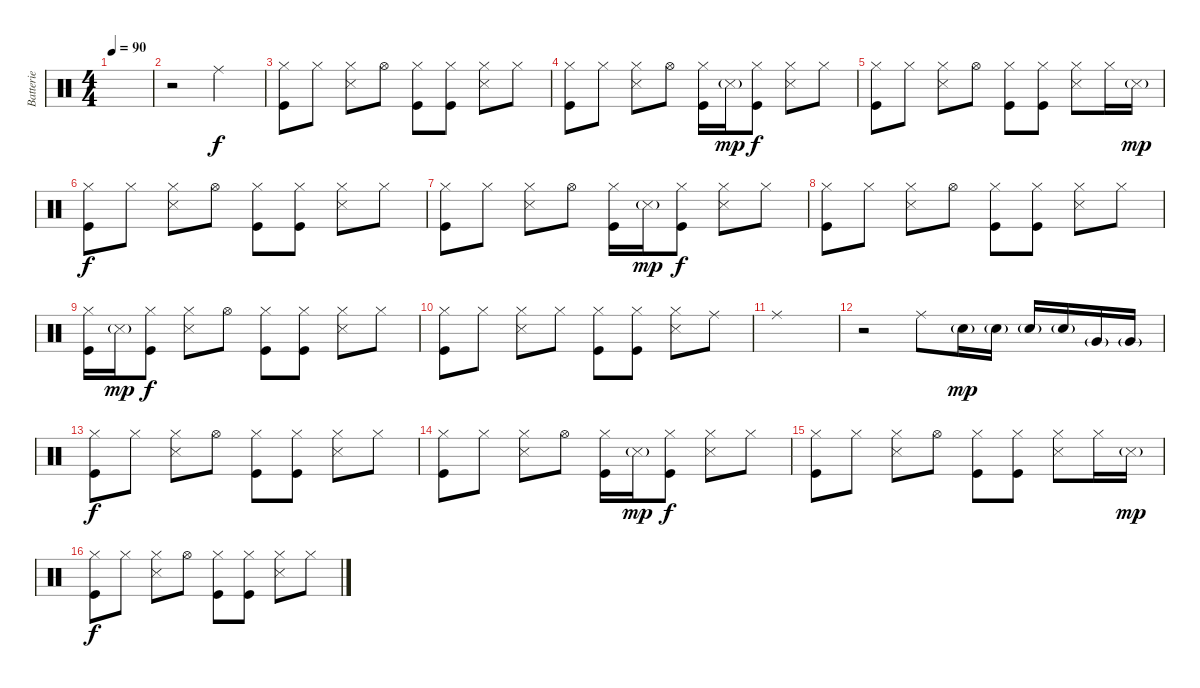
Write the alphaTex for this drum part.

\track ("Batterie" "Batterie") {instrument percussion}
\staff {score}
\articulation defaults
\ts (4 4)
\tempo 90
\clef neutral
\ks c
|
r.2 "Ride (middle)".2 |
("Hi-Hat (closed)" "Kick (hit)").8 "Hi-Hat (closed)".8 ("Hi-Hat (closed)" "Snare (side stick) 3").8 "Hi-Hat (open)".8 ("Hi-Hat (closed)" "Kick (hit)").8 ("Hi-Hat (closed)" "Kick (hit)").8 ("Hi-Hat (closed)" "Snare (side stick) 3").8 "Hi-Hat (closed)".8 |
("Hi-Hat (closed)" "Kick (hit)").8 "Hi-Hat (closed)".8 ("Hi-Hat (closed)" "Snare (side stick) 3").8 "Hi-Hat (open)".8 ("Hi-Hat (closed)" "Kick (hit)").16 "Snare (side stick) 3"{g}.16{dy mp} ("Hi-Hat (closed)" "Kick (hit)").8{dy f} ("Hi-Hat (closed)" "Snare (side stick) 3").8 "Hi-Hat (closed)".8 |
("Hi-Hat (closed)" "Kick (hit)").8 "Hi-Hat (closed)".8 ("Hi-Hat (closed)" "Snare (side stick) 3").8 "Hi-Hat (open)".8 ("Hi-Hat (closed)" "Kick (hit)").8 ("Hi-Hat (closed)" "Kick (hit)").8 ("Hi-Hat (closed)" "Snare (side stick) 3").8 "Hi-Hat (closed)".16 "Snare (side stick) 3"{g}.16{dy mp} |
("Hi-Hat (closed)" "Kick (hit)").8{dy f} "Hi-Hat (closed)".8 ("Hi-Hat (closed)" "Snare (side stick) 3").8 "Hi-Hat (open)".8 ("Hi-Hat (closed)" "Kick (hit)").8 ("Hi-Hat (closed)" "Kick (hit)").8 ("Hi-Hat (closed)" "Snare (side stick) 3").8 "Hi-Hat (closed)".8 |
("Hi-Hat (closed)" "Kick (hit)").8 "Hi-Hat (closed)".8 ("Hi-Hat (closed)" "Snare (side stick) 3").8 "Hi-Hat (open)".8 ("Hi-Hat (closed)" "Kick (hit)").16 "Snare (side stick) 3"{g}.16{dy mp} ("Hi-Hat (closed)" "Kick (hit)").8{dy f} ("Hi-Hat (closed)" "Snare (side stick) 3").8 "Hi-Hat (closed)".8 |
("Hi-Hat (closed)" "Kick (hit)").8 "Hi-Hat (closed)".8 ("Hi-Hat (closed)" "Snare (side stick) 3").8 "Hi-Hat (open)".8 ("Hi-Hat (closed)" "Kick (hit)").8 ("Hi-Hat (closed)" "Kick (hit)").8 ("Hi-Hat (closed)" "Snare (side stick) 3").8 "Hi-Hat (closed)".8 |
("Hi-Hat (closed)" "Kick (hit)").16 "Snare (side stick) 3"{g}.16{dy mp} ("Hi-Hat (closed)" "Kick (hit)").8{dy f} ("Hi-Hat (closed)" "Snare (side stick) 3").8 "Hi-Hat (open)".8 ("Hi-Hat (closed)" "Kick (hit)").8 ("Hi-Hat (closed)" "Kick (hit)").8 ("Hi-Hat (closed)" "Snare (side stick) 3").8 "Hi-Hat (closed)".8 |
("Hi-Hat (closed)" "Kick (hit)").8 "Hi-Hat (closed)".8 ("Hi-Hat (closed)" "Snare (side stick) 3").8 "Hi-Hat (closed)".8 ("Hi-Hat (closed)" "Kick (hit)").8 ("Hi-Hat (closed)" "Kick (hit)").8 ("Hi-Hat (closed)" "Snare (side stick) 3").8 "Ride (middle)".8 |
"Ride (middle)".1 |
r.2 "Ride (middle)".8 "Snare (hit) 2"{g}.16{dy mp} "Snare (hit) 2"{g}.16 "Snare (hit) 2"{g}.16 "Snare (hit) 2"{g}.16 "Very Low Tom (hit)"{g}.16 "Very Low Tom (hit)"{g}.16 |
\section ("" "")
("Hi-Hat (closed)" "Kick (hit)").8{dy f} "Hi-Hat (closed)".8 ("Hi-Hat (closed)" "Snare (side stick) 3").8 "Hi-Hat (open)".8 ("Hi-Hat (closed)" "Kick (hit)").8 ("Hi-Hat (closed)" "Kick (hit)").8 ("Hi-Hat (closed)" "Snare (side stick) 3").8 "Hi-Hat (closed)".8 |
("Hi-Hat (closed)" "Kick (hit)").8 "Hi-Hat (closed)".8 ("Hi-Hat (closed)" "Snare (side stick) 3").8 "Hi-Hat (open)".8 ("Hi-Hat (closed)" "Kick (hit)").16 "Snare (side stick) 3"{g}.16{dy mp} ("Hi-Hat (closed)" "Kick (hit)").8{dy f} ("Hi-Hat (closed)" "Snare (side stick) 3").8 "Hi-Hat (closed)".8 |
("Hi-Hat (closed)" "Kick (hit)").8 "Hi-Hat (closed)".8 ("Hi-Hat (closed)" "Snare (side stick) 3").8 "Hi-Hat (open)".8 ("Hi-Hat (closed)" "Kick (hit)").8 ("Hi-Hat (closed)" "Kick (hit)").8 ("Hi-Hat (closed)" "Snare (side stick) 3").8 "Hi-Hat (closed)".16 "Snare (side stick) 3"{g}.16{dy mp} |
("Hi-Hat (closed)" "Kick (hit)").8{dy f} "Hi-Hat (closed)".8 ("Hi-Hat (closed)" "Snare (side stick) 3").8 "Hi-Hat (open)".8 ("Hi-Hat (closed)" "Kick (hit)").8 ("Hi-Hat (closed)" "Kick (hit)").8 ("Hi-Hat (closed)" "Snare (side stick) 3").8 "Hi-Hat (closed)".8
